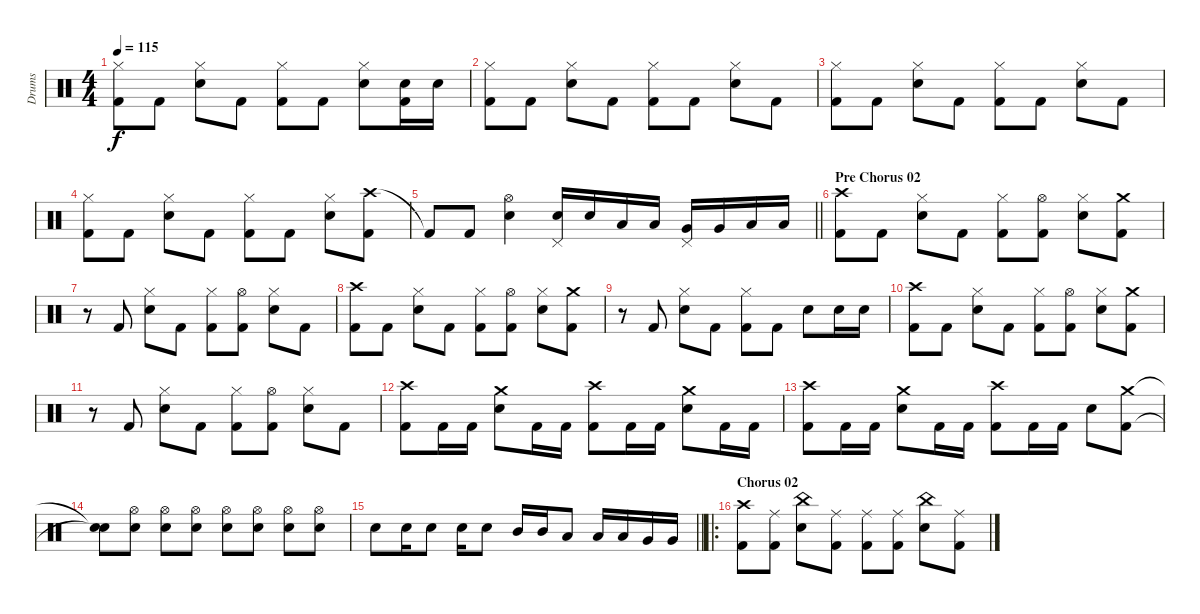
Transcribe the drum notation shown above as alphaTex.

\track ("Drums" "Drums") {instrument percussion}
\staff {score}
\articulation defaults
\ts (4 4)
\tempo 115
\clef neutral
\ks c
("Hi-Hat (closed)" "Kick (hit) 2").8{dy f} "Kick (hit) 2".8 ("Hi-Hat (closed)" "Snare (hit) 2").8 "Kick (hit) 2".8 ("Hi-Hat (closed)" "Kick (hit) 2").8 "Kick (hit) 2".8 ("Hi-Hat (closed)" "Snare (hit) 2").8 ("Snare (hit) 2" "Kick (hit) 2").16 "Snare (hit) 2".16 |
("Hi-Hat (closed)" "Kick (hit) 2").8 "Kick (hit) 2".8 ("Hi-Hat (closed)" "Snare (hit) 2").8 "Kick (hit) 2".8 ("Hi-Hat (closed)" "Kick (hit) 2").8 "Kick (hit) 2".8 ("Hi-Hat (closed)" "Snare (hit) 2").8 "Kick (hit) 2".8 |
("Hi-Hat (closed)" "Kick (hit) 2").8 "Kick (hit) 2".8 ("Hi-Hat (closed)" "Snare (hit) 2").8 "Kick (hit) 2".8 ("Hi-Hat (closed)" "Kick (hit) 2").8 "Kick (hit) 2".8 ("Hi-Hat (closed)" "Snare (hit) 2").8 "Kick (hit) 2".8 |
("Hi-Hat (closed)" "Kick (hit) 2").8 "Kick (hit) 2".8 ("Hi-Hat (closed)" "Snare (hit) 2").8 "Kick (hit) 2".8 ("Hi-Hat (closed)" "Kick (hit) 2").8 "Kick (hit) 2".8 ("Hi-Hat (closed)" "Snare (hit) 2").8 ("Crash high (hit)" "Kick (hit) 2").8 |
\barLineRight lightlight "Kick (hit) 2"{t}.8 "Kick (hit) 2".8
("Hi-Hat (open)" "Snare (hit) 2").4 ("Pedal Hi-Hat (hit)" "Snare (hit) 2").16 "Snare (hit) 2".16 "Low Tom (hit)".16 "Low Tom (hit)".16 ("Very Low Tom (hit)" "Pedal Hi-Hat (hit)").16 "Very Low Tom (hit)".16 "Low Floor Tom (hit)".16 "Low Floor Tom (hit)".16 |
\section ("" "Pre Chorus 02")
("Crash high (hit)" "Kick (hit) 2").8 "Kick (hit) 2".8 ("Hi-Hat (closed)" "Snare (hit) 2").8 "Kick (hit) 2".8 ("Hi-Hat (closed)" "Kick (hit) 2").8 ("Hi-Hat (open)" "Kick (hit) 2").8 ("Hi-Hat (closed)" "Snare (hit) 2").8 ("Crash medium (hit)" "Kick (hit) 2").8 |
r.8 "Kick (hit) 2".8 ("Hi-Hat (closed)" "Snare (hit) 2").8 "Kick (hit) 2".8 ("Hi-Hat (closed)" "Kick (hit) 2").8 ("Hi-Hat (open)" "Kick (hit) 2").8 ("Hi-Hat (closed)" "Snare (hit) 2").8 "Kick (hit) 2".8 |
("Crash high (hit)" "Kick (hit) 2").8 "Kick (hit) 2".8 ("Hi-Hat (closed)" "Snare (hit) 2").8 "Kick (hit) 2".8 ("Hi-Hat (closed)" "Kick (hit) 2").8 ("Hi-Hat (open)" "Kick (hit) 2").8 ("Hi-Hat (closed)" "Snare (hit) 2").8 ("Crash medium (hit)" "Kick (hit) 2").8 |
r.8 "Kick (hit) 2".8 ("Hi-Hat (closed)" "Snare (hit) 2").8 "Kick (hit) 2".8 ("Hi-Hat (closed)" "Kick (hit) 2").8 "Kick (hit) 2".8 "Snare (hit) 2".8 "Snare (hit) 2".16 "Snare (hit) 2".16 |
("Crash high (hit)" "Kick (hit) 2").8 "Kick (hit) 2".8 ("Hi-Hat (closed)" "Snare (hit) 2").8 "Kick (hit) 2".8 ("Hi-Hat (closed)" "Kick (hit) 2").8 ("Hi-Hat (open)" "Kick (hit) 2").8 ("Hi-Hat (closed)" "Snare (hit) 2").8 ("Crash medium (hit)" "Kick (hit) 2").8 |
r.8 "Kick (hit) 2".8 ("Hi-Hat (closed)" "Snare (hit) 2").8 "Kick (hit) 2".8 ("Hi-Hat (closed)" "Kick (hit) 2").8 ("Hi-Hat (open)" "Kick (hit) 2").8 ("Hi-Hat (closed)" "Snare (hit) 2").8 "Kick (hit) 2".8 |
("Crash high (hit)" "Kick (hit) 2").8 "Kick (hit) 2".16 "Kick (hit) 2".16 ("Crash medium (hit)" "Snare (hit) 2").8 "Kick (hit) 2".16 "Kick (hit) 2".16 ("Crash high (hit)" "Kick (hit) 2").8 "Kick (hit) 2".16 "Kick (hit) 2".16 ("Crash medium (hit)" "Snare (hit) 2").8 "Kick (hit) 2".16 "Kick (hit) 2".16 |
("Crash high (hit)" "Kick (hit) 2").8 "Kick (hit) 2".16 "Kick (hit) 2".16 ("Crash medium (hit)" "Snare (hit) 2").8 "Kick (hit) 2".16 "Kick (hit) 2".16 ("Crash high (hit)" "Kick (hit) 2").8 "Kick (hit) 2".16 "Kick (hit) 2".16 "Snare (hit) 2".8 ("Crash medium (hit)" "Kick (hit) 2").8 |
("Snare (hit)"{t} "Snare (hit)"{t}).8 ("Hi-Hat (open)" "Snare (hit) 2").8 ("Hi-Hat (open)" "Snare (hit) 2").8 ("Hi-Hat (open)" "Snare (hit) 2").8 ("Hi-Hat (open)" "Snare (hit) 2").8 ("Hi-Hat (open)" "Snare (hit) 2").8 ("Hi-Hat (open)" "Snare (hit) 2").8 ("Hi-Hat (open)" "Snare (hit) 2").8 |
\barLineRight lightlight "Snare (hit) 2".8 "Snare (hit) 2".16 "Snare (hit) 2".8 "Snare (hit) 2".16 "Snare (hit) 2".8 "Mid Tom (hit)".16 "Mid Tom (hit)".16 "Low Tom (hit)".8 "Low Tom (hit)".16 "Low Tom (hit)".16 "Very Low Tom (hit)".16 "Very Low Tom (hit)".16
|
\ro
\section ("" "Chorus 02")
("Crash high (hit)" "Kick (hit) 2").8 ("Ride (middle)" "Kick (hit) 2").8 ("China (hit)" "Snare (hit) 2").8 ("Ride (middle)" "Kick (hit) 2").8 ("Ride (middle)" "Kick (hit) 2").8 ("Ride (middle)" "Kick (hit) 2").8 ("China (hit)" "Snare (hit) 2").8 ("Ride (middle)" "Kick (hit) 2").8
